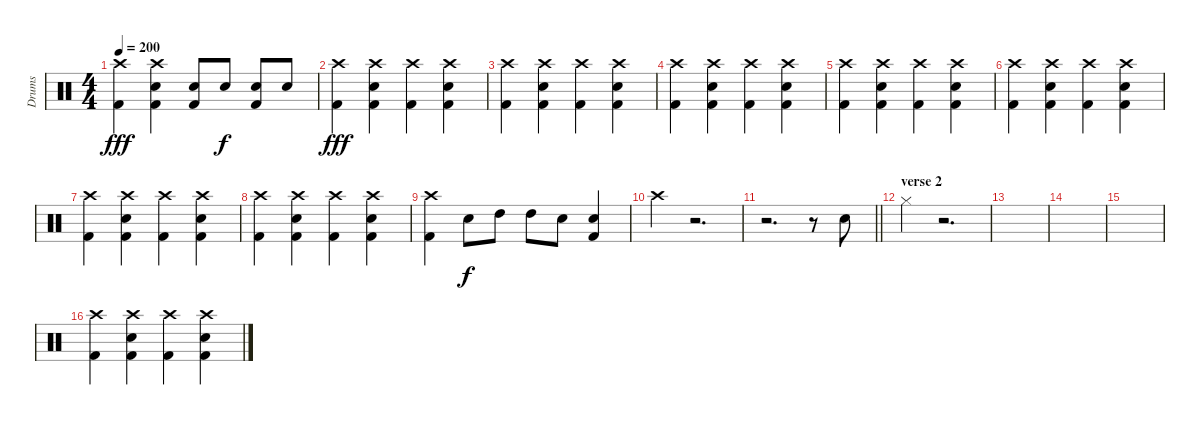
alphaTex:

\track ("Drums" "Drums") {instrument percussion}
\staff {score}
\articulation defaults
\ts (4 4)
\tempo 200
\clef neutral
\ks c
("Crash high (hit)" "Kick (hit) 2").4{dy fff} ("Crash high (hit)" "Snare (hit) 2" "Kick (hit) 2").4 ("Snare (hit) 2" "Kick (hit) 2").8 "Snare (hit) 2".8{dy f} ("Snare (hit) 2" "Kick (hit) 2").8 "Snare (hit) 2".8 |
("Crash high (hit)" "Kick (hit) 2").4{dy fff} ("Crash high (hit)" "Snare (hit) 2" "Kick (hit) 2").4 ("Crash high (hit)" "Kick (hit) 2").4 ("Crash high (hit)" "Snare (hit) 2" "Kick (hit) 2").4 |
("Crash high (hit)" "Kick (hit) 2").4 ("Crash high (hit)" "Snare (hit) 2" "Kick (hit) 2").4 ("Crash high (hit)" "Kick (hit) 2").4 ("Crash high (hit)" "Snare (hit) 2" "Kick (hit) 2").4 |
("Crash high (hit)" "Kick (hit) 2").4 ("Crash high (hit)" "Snare (hit) 2" "Kick (hit) 2").4 ("Crash high (hit)" "Kick (hit) 2").4 ("Crash high (hit)" "Snare (hit) 2" "Kick (hit) 2").4 |
("Crash high (hit)" "Kick (hit) 2").4 ("Crash high (hit)" "Snare (hit) 2" "Kick (hit) 2").4 ("Crash high (hit)" "Kick (hit) 2").4 ("Crash high (hit)" "Snare (hit) 2" "Kick (hit) 2").4 |
("Crash high (hit)" "Kick (hit) 2").4 ("Crash high (hit)" "Snare (hit) 2" "Kick (hit) 2").4 ("Crash high (hit)" "Kick (hit) 2").4 ("Crash high (hit)" "Snare (hit) 2" "Kick (hit) 2").4 |
("Crash high (hit)" "Kick (hit) 2").4 ("Crash high (hit)" "Snare (hit) 2" "Kick (hit) 2").4 ("Crash high (hit)" "Kick (hit) 2").4 ("Crash high (hit)" "Snare (hit) 2" "Kick (hit) 2").4 |
("Crash high (hit)" "Kick (hit) 2").4 ("Crash high (hit)" "Snare (hit) 2" "Kick (hit) 2").4 ("Crash high (hit)" "Kick (hit) 2").4 ("Crash high (hit)" "Snare (hit) 2" "Kick (hit) 2").4 |
("Crash high (hit)" "Kick (hit) 2").4 "Snare (hit) 2".8{dy f} "High Tom (hit)".8 "High Tom (hit)".8 "Snare (hit) 2".8 ("Snare (hit) 2" "Kick (hit) 2").4 |
"Crash high (hit)".4 r.2{d} |
\barLineRight lightlight
r.2{d} r.8 "Snare (hit) 2".8 |
\section ("" "verse 2")
"Hi-Hat (closed)".4 r.2{d} |
|
|
|
("Crash high (hit)" "Kick (hit) 2").4 ("Crash high (hit)" "Snare (hit) 2" "Kick (hit) 2").4 ("Crash high (hit)" "Kick (hit) 2").4 ("Crash high (hit)" "Snare (hit) 2" "Kick (hit) 2").4
